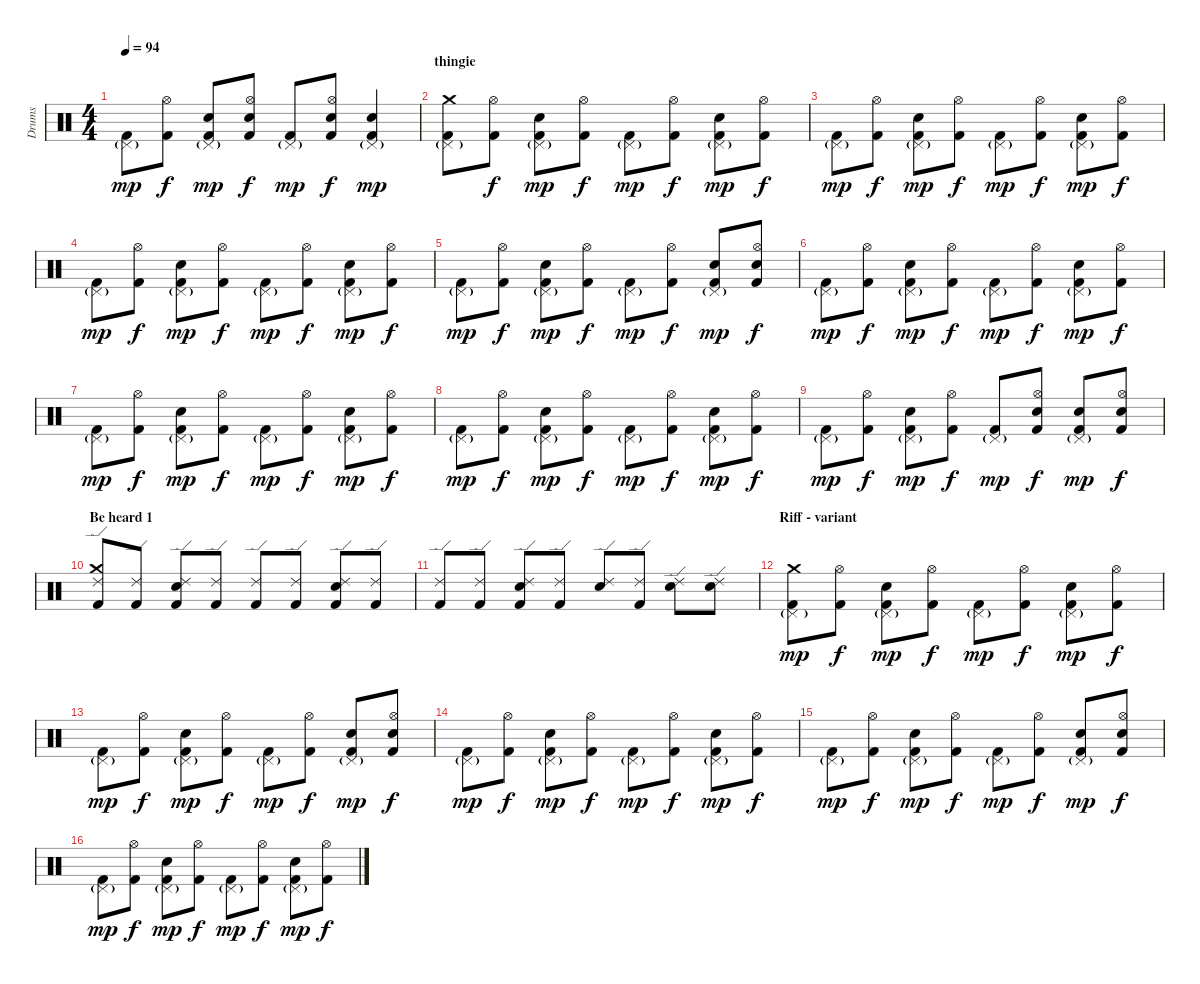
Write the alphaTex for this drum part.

\track ("Drums" "Drums") {instrument percussion}
\staff {score}
\articulation defaults
\ts (4 4)
\tempo 94
\clef neutral
\ks c
("Pedal Hi-Hat (hit)"{g} "Kick (hit) 2").8{dy mp} ("Hi-Hat (open)" "Kick (hit) 2").8{dy f} ("Pedal Hi-Hat (hit)"{g} "Snare (hit) 2" "Kick (hit) 2").8{dy mp} ("Hi-Hat (open)" "Snare (hit) 2" "Kick (hit) 2").8{dy f} ("Pedal Hi-Hat (hit)"{g} "Kick (hit) 2").8{dy mp} ("Hi-Hat (open)" "Snare (hit) 2" "Kick (hit) 2").8{dy f} ("Pedal Hi-Hat (hit)"{g} "Snare (hit) 2" "Kick (hit) 2").4{dy mp} |
\section ("" "thingie")
("Pedal Hi-Hat (hit)"{g} "Crash medium (hit)" "Kick (hit) 2").8 ("Hi-Hat (open)" "Kick (hit) 2").8{dy f} ("Pedal Hi-Hat (hit)"{g} "Snare (hit) 2" "Kick (hit) 2").8{dy mp} ("Hi-Hat (open)" "Kick (hit) 2").8{dy f} ("Pedal Hi-Hat (hit)"{g} "Kick (hit) 2").8{dy mp} ("Hi-Hat (open)" "Kick (hit) 2").8{dy f} ("Pedal Hi-Hat (hit)"{g} "Snare (hit) 2" "Kick (hit) 2").8{dy mp} ("Hi-Hat (open)" "Kick (hit) 2").8{dy f} |
("Pedal Hi-Hat (hit)"{g} "Kick (hit) 2").8{dy mp} ("Hi-Hat (open)" "Kick (hit) 2").8{dy f} ("Pedal Hi-Hat (hit)"{g} "Snare (hit) 2" "Kick (hit) 2").8{dy mp} ("Hi-Hat (open)" "Kick (hit) 2").8{dy f} ("Pedal Hi-Hat (hit)"{g} "Kick (hit) 2").8{dy mp} ("Hi-Hat (open)" "Kick (hit) 2").8{dy f} ("Pedal Hi-Hat (hit)"{g} "Snare (hit) 2" "Kick (hit) 2").8{dy mp} ("Hi-Hat (open)" "Kick (hit) 2").8{dy f} |
("Pedal Hi-Hat (hit)"{g} "Kick (hit) 2").8{dy mp} ("Hi-Hat (open)" "Kick (hit) 2").8{dy f} ("Pedal Hi-Hat (hit)"{g} "Snare (hit) 2" "Kick (hit) 2").8{dy mp} ("Hi-Hat (open)" "Kick (hit) 2").8{dy f} ("Pedal Hi-Hat (hit)"{g} "Kick (hit) 2").8{dy mp} ("Hi-Hat (open)" "Kick (hit) 2").8{dy f} ("Pedal Hi-Hat (hit)"{g} "Snare (hit) 2" "Kick (hit) 2").8{dy mp} ("Hi-Hat (open)" "Kick (hit) 2").8{dy f} |
("Pedal Hi-Hat (hit)"{g} "Kick (hit) 2").8{dy mp} ("Hi-Hat (open)" "Kick (hit) 2").8{dy f} ("Pedal Hi-Hat (hit)"{g} "Snare (hit) 2" "Kick (hit) 2").8{dy mp} ("Hi-Hat (open)" "Kick (hit) 2").8{dy f} ("Pedal Hi-Hat (hit)"{g} "Kick (hit) 2").8{dy mp} ("Hi-Hat (open)" "Kick (hit) 2").8{dy f} ("Pedal Hi-Hat (hit)"{g} "Snare (hit) 2" "Kick (hit) 2").8{dy mp} ("Hi-Hat (open)" "Snare (hit) 2" "Kick (hit) 2").8{dy f} |
("Pedal Hi-Hat (hit)"{g} "Kick (hit) 2").8{dy mp} ("Hi-Hat (open)" "Kick (hit) 2").8{dy f} ("Pedal Hi-Hat (hit)"{g} "Snare (hit) 2" "Kick (hit) 2").8{dy mp} ("Hi-Hat (open)" "Kick (hit) 2").8{dy f} ("Pedal Hi-Hat (hit)"{g} "Kick (hit) 2").8{dy mp} ("Hi-Hat (open)" "Kick (hit) 2").8{dy f} ("Pedal Hi-Hat (hit)"{g} "Snare (hit) 2" "Kick (hit) 2").8{dy mp} ("Hi-Hat (open)" "Kick (hit) 2").8{dy f} |
("Pedal Hi-Hat (hit)"{g} "Kick (hit) 2").8{dy mp} ("Hi-Hat (open)" "Kick (hit) 2").8{dy f} ("Pedal Hi-Hat (hit)"{g} "Snare (hit) 2" "Kick (hit) 2").8{dy mp} ("Hi-Hat (open)" "Kick (hit) 2").8{dy f} ("Pedal Hi-Hat (hit)"{g} "Kick (hit) 2").8{dy mp} ("Hi-Hat (open)" "Kick (hit) 2").8{dy f} ("Pedal Hi-Hat (hit)"{g} "Snare (hit) 2" "Kick (hit) 2").8{dy mp} ("Hi-Hat (open)" "Kick (hit) 2").8{dy f} |
("Pedal Hi-Hat (hit)"{g} "Kick (hit) 2").8{dy mp} ("Hi-Hat (open)" "Kick (hit) 2").8{dy f} ("Pedal Hi-Hat (hit)"{g} "Snare (hit) 2" "Kick (hit) 2").8{dy mp} ("Hi-Hat (open)" "Kick (hit) 2").8{dy f} ("Pedal Hi-Hat (hit)"{g} "Kick (hit) 2").8{dy mp} ("Hi-Hat (open)" "Kick (hit) 2").8{dy f} ("Pedal Hi-Hat (hit)"{g} "Snare (hit) 2" "Kick (hit) 2").8{dy mp} ("Hi-Hat (open)" "Kick (hit) 2").8{dy f} |
("Pedal Hi-Hat (hit)"{g} "Kick (hit) 2").8{dy mp} ("Hi-Hat (open)" "Kick (hit) 2").8{dy f} ("Pedal Hi-Hat (hit)"{g} "Snare (hit) 2" "Kick (hit) 2").8{dy mp} ("Hi-Hat (open)" "Kick (hit) 2").8{dy f} ("Pedal Hi-Hat (hit)"{g} "Kick (hit) 2").8{dy mp} ("Hi-Hat (open)" "Snare (hit) 2" "Kick (hit) 2").8{dy f} ("Pedal Hi-Hat (hit)"{g} "Snare (hit) 2" "Kick (hit) 2").8{dy mp} ("Hi-Hat (open)" "Snare (hit) 2" "Kick (hit) 2").8{dy f} |
\section ("" "Be heard 1")
("Ride (edge) 2" "Crash medium (hit)" "Kick (hit) 2").8 ("Ride (edge) 2" "Kick (hit) 2").8 ("Ride (edge) 2" "Snare (hit) 2" "Kick (hit) 2").8 ("Ride (edge) 2" "Kick (hit) 2").8 ("Ride (edge) 2" "Kick (hit) 2").8 ("Ride (edge) 2" "Kick (hit) 2").8 ("Ride (edge) 2" "Snare (hit) 2" "Kick (hit) 2").8 ("Ride (edge) 2" "Kick (hit) 2").8 |
("Ride (edge) 2" "Kick (hit) 2").8 ("Ride (edge) 2" "Kick (hit) 2").8 ("Ride (edge) 2" "Snare (hit) 2" "Kick (hit) 2").8 ("Ride (edge) 2" "Kick (hit) 2").8 ("Ride (edge) 2" "Snare (hit) 2").8 ("Ride (edge) 2" "Kick (hit) 2").8 ("Ride (edge) 2" "Snare (hit) 2").8 ("Ride (edge) 2" "Snare (hit) 2").8 |
\section ("" "Riff - variant")
("Pedal Hi-Hat (hit)"{g} "Crash medium (hit)" "Kick (hit) 2").8{dy mp} ("Hi-Hat (open)" "Kick (hit) 2").8{dy f} ("Pedal Hi-Hat (hit)"{g} "Snare (hit) 2" "Kick (hit) 2").8{dy mp} ("Hi-Hat (open)" "Kick (hit) 2").8{dy f} ("Pedal Hi-Hat (hit)"{g} "Kick (hit) 2").8{dy mp} ("Hi-Hat (open)" "Kick (hit) 2").8{dy f} ("Pedal Hi-Hat (hit)"{g} "Snare (hit) 2" "Kick (hit) 2").8{dy mp} ("Hi-Hat (open)" "Kick (hit) 2").8{dy f} |
("Pedal Hi-Hat (hit)"{g} "Kick (hit) 2").8{dy mp} ("Hi-Hat (open)" "Kick (hit) 2").8{dy f} ("Pedal Hi-Hat (hit)"{g} "Snare (hit) 2" "Kick (hit) 2").8{dy mp} ("Hi-Hat (open)" "Kick (hit) 2").8{dy f} ("Pedal Hi-Hat (hit)"{g} "Kick (hit) 2").8{dy mp} ("Hi-Hat (open)" "Kick (hit) 2").8{dy f} ("Pedal Hi-Hat (hit)"{g} "Snare (hit) 2" "Kick (hit) 2").8{dy mp} ("Hi-Hat (open)" "Snare (hit) 2" "Kick (hit) 2").8{dy f} |
("Pedal Hi-Hat (hit)"{g} "Kick (hit) 2").8{dy mp} ("Hi-Hat (open)" "Kick (hit) 2").8{dy f} ("Pedal Hi-Hat (hit)"{g} "Snare (hit) 2" "Kick (hit) 2").8{dy mp} ("Hi-Hat (open)" "Kick (hit) 2").8{dy f} ("Pedal Hi-Hat (hit)"{g} "Kick (hit) 2").8{dy mp} ("Hi-Hat (open)" "Kick (hit) 2").8{dy f} ("Pedal Hi-Hat (hit)"{g} "Snare (hit) 2" "Kick (hit) 2").8{dy mp} ("Hi-Hat (open)" "Kick (hit) 2").8{dy f} |
("Pedal Hi-Hat (hit)"{g} "Kick (hit) 2").8{dy mp} ("Hi-Hat (open)" "Kick (hit) 2").8{dy f} ("Pedal Hi-Hat (hit)"{g} "Snare (hit) 2" "Kick (hit) 2").8{dy mp} ("Hi-Hat (open)" "Kick (hit) 2").8{dy f} ("Pedal Hi-Hat (hit)"{g} "Kick (hit) 2").8{dy mp} ("Hi-Hat (open)" "Kick (hit) 2").8{dy f} ("Pedal Hi-Hat (hit)"{g} "Snare (hit) 2" "Kick (hit) 2").8{dy mp} ("Hi-Hat (open)" "Snare (hit) 2" "Kick (hit) 2").8{dy f} |
("Pedal Hi-Hat (hit)"{g} "Kick (hit) 2").8{dy mp} ("Hi-Hat (open)" "Kick (hit) 2").8{dy f} ("Pedal Hi-Hat (hit)"{g} "Snare (hit) 2" "Kick (hit) 2").8{dy mp} ("Hi-Hat (open)" "Kick (hit) 2").8{dy f} ("Pedal Hi-Hat (hit)"{g} "Kick (hit) 2").8{dy mp} ("Hi-Hat (open)" "Kick (hit) 2").8{dy f} ("Pedal Hi-Hat (hit)"{g} "Snare (hit) 2" "Kick (hit) 2").8{dy mp} ("Hi-Hat (open)" "Kick (hit) 2").8{dy f}
